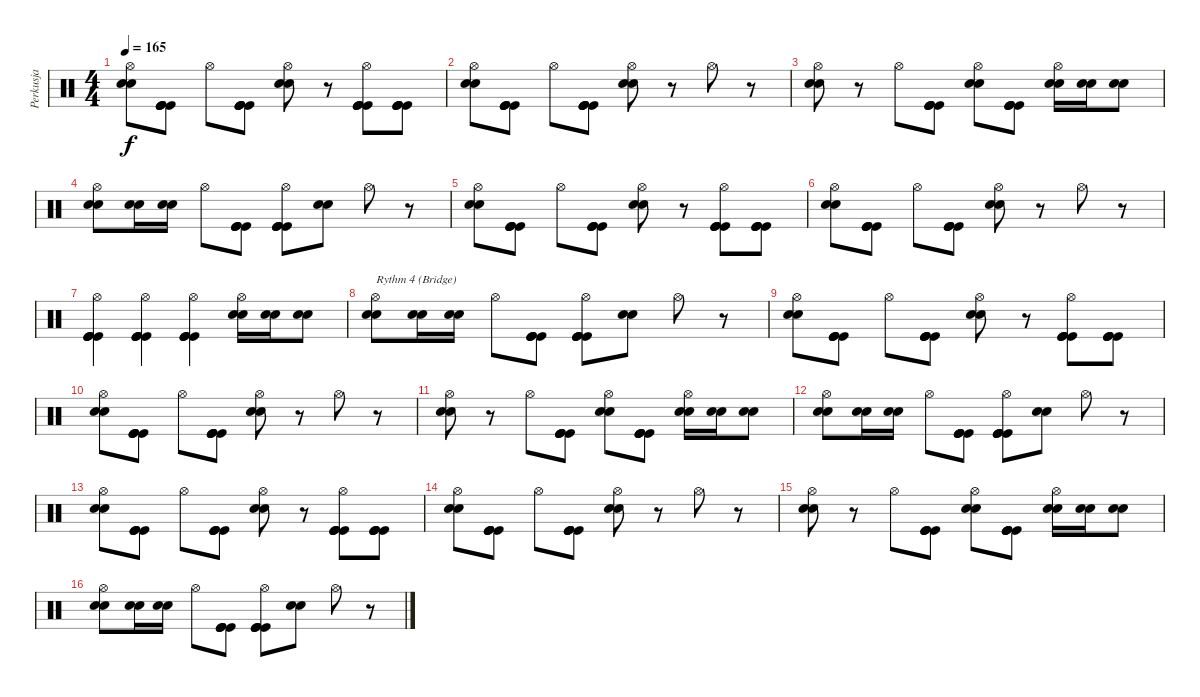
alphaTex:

\track ("Perkusja" "Perkusja") {instrument percussion}
\staff {score}
\articulation defaults
\ts (4 4)
\tempo 165
\clef neutral
\ks c
("Hi-Hat (open)" "Snare (hit) 2" "Snare (hit) 2").8{dy f} ("Kick (hit)" "Kick (hit)" "Kick (hit)" "Kick (hit)").8 "Hi-Hat (open)".8 ("Kick (hit)" "Kick (hit)" "Kick (hit)" "Kick (hit)").8 ("Hi-Hat (open)" "Snare (hit) 2" "Snare (hit) 2").8 r.8 ("Hi-Hat (open)" "Kick (hit)" "Kick (hit)" "Kick (hit)" "Kick (hit)").8 ("Kick (hit)" "Kick (hit)" "Kick (hit)" "Kick (hit)").8 |
("Hi-Hat (open)" "Snare (hit) 2" "Snare (hit) 2").8 ("Kick (hit)" "Kick (hit)" "Kick (hit)" "Kick (hit)").8 "Hi-Hat (open)".8 ("Kick (hit)" "Kick (hit)" "Kick (hit)" "Kick (hit)").8 ("Hi-Hat (open)" "Snare (hit) 2" "Snare (hit) 2").8 r.8 "Hi-Hat (open)".8 r.8 |
("Hi-Hat (open)" "Snare (hit) 2" "Snare (hit) 2").8 r.8 "Hi-Hat (open)".8 ("Kick (hit)" "Kick (hit)" "Kick (hit)" "Kick (hit)").8 ("Hi-Hat (open)" "Snare (hit) 2" "Snare (hit) 2").8 ("Kick (hit)" "Kick (hit)" "Kick (hit)" "Kick (hit)").8 ("Hi-Hat (open)" "Snare (hit) 2" "Snare (hit) 2").16 ("Snare (hit) 2" "Snare (hit) 2").16 ("Snare (hit) 2" "Snare (hit) 2").8 |
("Hi-Hat (open)" "Snare (hit) 2" "Snare (hit) 2").8 ("Snare (hit) 2" "Snare (hit) 2").16 ("Snare (hit) 2" "Snare (hit) 2").16 "Hi-Hat (open)".8 ("Kick (hit)" "Kick (hit)" "Kick (hit)" "Kick (hit)").8 ("Hi-Hat (open)" "Kick (hit)" "Kick (hit)" "Kick (hit)" "Kick (hit)").8 ("Snare (hit) 2" "Snare (hit) 2").8 "Hi-Hat (open)".8 r.8 |
("Hi-Hat (open)" "Snare (hit) 2" "Snare (hit) 2").8 ("Kick (hit)" "Kick (hit)" "Kick (hit)" "Kick (hit)").8 "Hi-Hat (open)".8 ("Kick (hit)" "Kick (hit)" "Kick (hit)" "Kick (hit)").8 ("Hi-Hat (open)" "Snare (hit) 2" "Snare (hit) 2").8 r.8 ("Hi-Hat (open)" "Kick (hit)" "Kick (hit)" "Kick (hit)" "Kick (hit)").8 ("Kick (hit)" "Kick (hit)" "Kick (hit)" "Kick (hit)").8 |
("Hi-Hat (open)" "Snare (hit) 2" "Snare (hit) 2").8 ("Kick (hit)" "Kick (hit)" "Kick (hit)" "Kick (hit)").8 "Hi-Hat (open)".8 ("Kick (hit)" "Kick (hit)" "Kick (hit)" "Kick (hit)").8 ("Hi-Hat (open)" "Snare (hit) 2" "Snare (hit) 2").8 r.8 "Hi-Hat (open)".8 r.8 |
("Hi-Hat (open)" "Kick (hit)" "Kick (hit)" "Kick (hit)" "Kick (hit)").4 ("Hi-Hat (open)" "Kick (hit)" "Kick (hit)" "Kick (hit)" "Kick (hit)").4 ("Hi-Hat (open)" "Kick (hit)" "Kick (hit)" "Kick (hit)" "Kick (hit)").4 ("Hi-Hat (open)" "Snare (hit) 2" "Snare (hit) 2").16 ("Snare (hit) 2" "Snare (hit) 2").16 ("Snare (hit) 2" "Snare (hit) 2").8 |
("Hi-Hat (open)" "Snare (hit) 2" "Snare (hit) 2").8{txt "Rythm 4 (Bridge)"} ("Snare (hit) 2" "Snare (hit) 2").16 ("Snare (hit) 2" "Snare (hit) 2").16 "Hi-Hat (open)".8 ("Kick (hit)" "Kick (hit)" "Kick (hit)" "Kick (hit)").8 ("Hi-Hat (open)" "Kick (hit)" "Kick (hit)" "Kick (hit)" "Kick (hit)").8 ("Snare (hit) 2" "Snare (hit) 2").8 "Hi-Hat (open)".8 r.8 |
("Hi-Hat (open)" "Snare (hit) 2" "Snare (hit) 2").8 ("Kick (hit)" "Kick (hit)" "Kick (hit)" "Kick (hit)").8 "Hi-Hat (open)".8 ("Kick (hit)" "Kick (hit)" "Kick (hit)" "Kick (hit)").8 ("Hi-Hat (open)" "Snare (hit) 2" "Snare (hit) 2").8 r.8 ("Hi-Hat (open)" "Kick (hit)" "Kick (hit)" "Kick (hit)" "Kick (hit)").8 ("Kick (hit)" "Kick (hit)" "Kick (hit)" "Kick (hit)").8 |
("Hi-Hat (open)" "Snare (hit) 2" "Snare (hit) 2").8 ("Kick (hit)" "Kick (hit)" "Kick (hit)" "Kick (hit)").8 "Hi-Hat (open)".8 ("Kick (hit)" "Kick (hit)" "Kick (hit)" "Kick (hit)").8 ("Hi-Hat (open)" "Snare (hit) 2" "Snare (hit) 2").8 r.8 "Hi-Hat (open)".8 r.8 |
("Hi-Hat (open)" "Snare (hit) 2" "Snare (hit) 2").8 r.8 "Hi-Hat (open)".8 ("Kick (hit)" "Kick (hit)" "Kick (hit)" "Kick (hit)").8 ("Hi-Hat (open)" "Snare (hit) 2" "Snare (hit) 2").8 ("Kick (hit)" "Kick (hit)" "Kick (hit)" "Kick (hit)").8 ("Hi-Hat (open)" "Snare (hit) 2" "Snare (hit) 2").16 ("Snare (hit) 2" "Snare (hit) 2").16 ("Snare (hit) 2" "Snare (hit) 2").8 |
("Hi-Hat (open)" "Snare (hit) 2" "Snare (hit) 2").8 ("Snare (hit) 2" "Snare (hit) 2").16 ("Snare (hit) 2" "Snare (hit) 2").16 "Hi-Hat (open)".8 ("Kick (hit)" "Kick (hit)" "Kick (hit)" "Kick (hit)").8 ("Hi-Hat (open)" "Kick (hit)" "Kick (hit)" "Kick (hit)" "Kick (hit)").8 ("Snare (hit) 2" "Snare (hit) 2").8 "Hi-Hat (open)".8 r.8 |
("Hi-Hat (open)" "Snare (hit) 2" "Snare (hit) 2").8 ("Kick (hit)" "Kick (hit)" "Kick (hit)" "Kick (hit)").8 "Hi-Hat (open)".8 ("Kick (hit)" "Kick (hit)" "Kick (hit)" "Kick (hit)").8 ("Hi-Hat (open)" "Snare (hit) 2" "Snare (hit) 2").8 r.8 ("Hi-Hat (open)" "Kick (hit)" "Kick (hit)" "Kick (hit)" "Kick (hit)").8 ("Kick (hit)" "Kick (hit)" "Kick (hit)" "Kick (hit)").8 |
("Hi-Hat (open)" "Snare (hit) 2" "Snare (hit) 2").8 ("Kick (hit)" "Kick (hit)" "Kick (hit)" "Kick (hit)").8 "Hi-Hat (open)".8 ("Kick (hit)" "Kick (hit)" "Kick (hit)" "Kick (hit)").8 ("Hi-Hat (open)" "Snare (hit) 2" "Snare (hit) 2").8 r.8 "Hi-Hat (open)".8 r.8 |
("Hi-Hat (open)" "Snare (hit) 2" "Snare (hit) 2").8 r.8 "Hi-Hat (open)".8 ("Kick (hit)" "Kick (hit)" "Kick (hit)" "Kick (hit)").8 ("Hi-Hat (open)" "Snare (hit) 2" "Snare (hit) 2").8 ("Kick (hit)" "Kick (hit)" "Kick (hit)" "Kick (hit)").8 ("Hi-Hat (open)" "Snare (hit) 2" "Snare (hit) 2").16 ("Snare (hit) 2" "Snare (hit) 2").16 ("Snare (hit) 2" "Snare (hit) 2").8 |
("Hi-Hat (open)" "Snare (hit) 2" "Snare (hit) 2").8 ("Snare (hit) 2" "Snare (hit) 2").16 ("Snare (hit) 2" "Snare (hit) 2").16 "Hi-Hat (open)".8 ("Kick (hit)" "Kick (hit)" "Kick (hit)" "Kick (hit)").8 ("Hi-Hat (open)" "Kick (hit)" "Kick (hit)" "Kick (hit)" "Kick (hit)").8 ("Snare (hit) 2" "Snare (hit) 2").8 "Hi-Hat (open)".8 r.8
